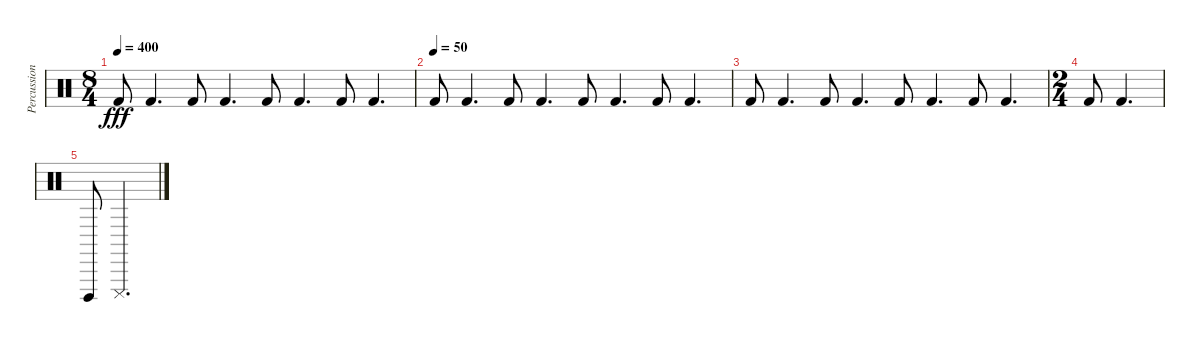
\track ("Percussion" "Percussion") {instrument percussion}
\staff {score}
\articulation defaults
\ts (8 4)
\tempo 400
\clef neutral
\ks c "Kick (hit) 2".8{dy fff} "Kick (hit) 2".4{d} "Kick (hit) 2".8 "Kick (hit) 2".4{d} "Kick (hit) 2".8 "Kick (hit) 2".4{d} "Kick (hit) 2".8 "Kick (hit) 2".4{d}
|
\tempo (50)
"Kick (hit) 2".8 "Kick (hit) 2".4{d} "Kick (hit) 2".8 "Kick (hit) 2".4{d} "Kick (hit) 2".8 "Kick (hit) 2".4{d} "Kick (hit) 2".8 "Kick (hit) 2".4{d} |
"Kick (hit) 2".8 "Kick (hit) 2".4{d} "Kick (hit) 2".8 "Kick (hit) 2".4{d} "Kick (hit) 2".8 "Kick (hit) 2".4{d} "Kick (hit) 2".8 "Kick (hit) 2".4{d} |
\ts (2 4)
"Kick (hit) 2".8 "Kick (hit) 2".4{d} |
"Cuica (open)".8 "Cuica (mute)".4{d}
